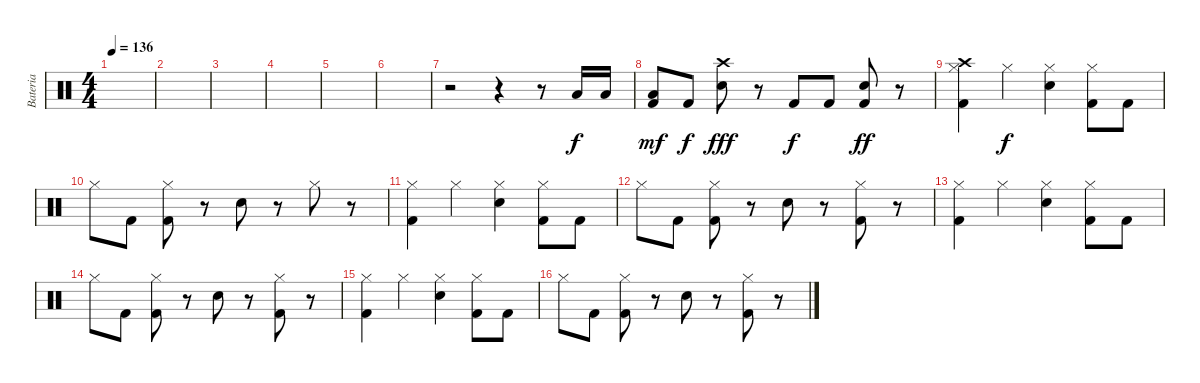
\track ("Bateria" "Bateria") {instrument percussion}
\staff {score}
\articulation defaults
\ts (4 4)
\tempo 136
\clef neutral
\ks c
|
|
|
|
|
|
r.2 r.4 r.8 "Low Tom (hit)".16 "Low Tom (hit)".16{dy f} |
("Low Tom (hit)" "Kick (hit) 2").8{dy mf} "Kick (hit) 2".8{dy f} ("Snare (hit) 2" "Crash high (hit)").8{dy fff} r.8 "Kick (hit) 2".8{dy f} "Kick (hit) 2".8 ("Snare (hit) 2" "Kick (hit) 2").8{dy ff} r.8 |
("Kick (hit) 2" "Hi-Hat (closed)" "Crash high (hit)").4 "Hi-Hat (closed)".4{dy f} ("Snare (hit) 2" "Hi-Hat (closed)").4 ("Kick (hit) 2" "Hi-Hat (closed)").8 "Kick (hit) 2".8 |
"Hi-Hat (closed)".8 "Kick (hit) 2".8 ("Kick (hit) 2" "Hi-Hat (closed)").8 r.8 "Snare (hit) 2".8 r.8 "Hi-Hat (closed)".8 r.8 |
("Kick (hit) 2" "Hi-Hat (closed)").4 "Hi-Hat (closed)".4 ("Snare (hit) 2" "Hi-Hat (closed)").4 ("Kick (hit) 2" "Hi-Hat (closed)").8 "Kick (hit) 2".8 |
"Hi-Hat (closed)".8 "Kick (hit) 2".8 ("Kick (hit) 2" "Hi-Hat (closed)").8 r.8 "Snare (hit) 2".8 r.8 ("Kick (hit) 2" "Hi-Hat (closed)").8 r.8 |
("Kick (hit) 2" "Hi-Hat (closed)").4 "Hi-Hat (closed)".4 ("Snare (hit) 2" "Hi-Hat (closed)").4 ("Kick (hit) 2" "Hi-Hat (closed)").8 "Kick (hit) 2".8 |
"Hi-Hat (closed)".8 "Kick (hit) 2".8 ("Kick (hit) 2" "Hi-Hat (closed)").8 r.8 "Snare (hit) 2".8 r.8 ("Kick (hit) 2" "Hi-Hat (closed)").8 r.8 |
("Kick (hit) 2" "Hi-Hat (closed)").4 "Hi-Hat (closed)".4 ("Snare (hit) 2" "Hi-Hat (closed)").4 ("Kick (hit) 2" "Hi-Hat (closed)").8 "Kick (hit) 2".8 |
"Hi-Hat (closed)".8 "Kick (hit) 2".8 ("Kick (hit) 2" "Hi-Hat (closed)").8 r.8 "Snare (hit) 2".8 r.8 ("Kick (hit) 2" "Hi-Hat (closed)").8 r.8
